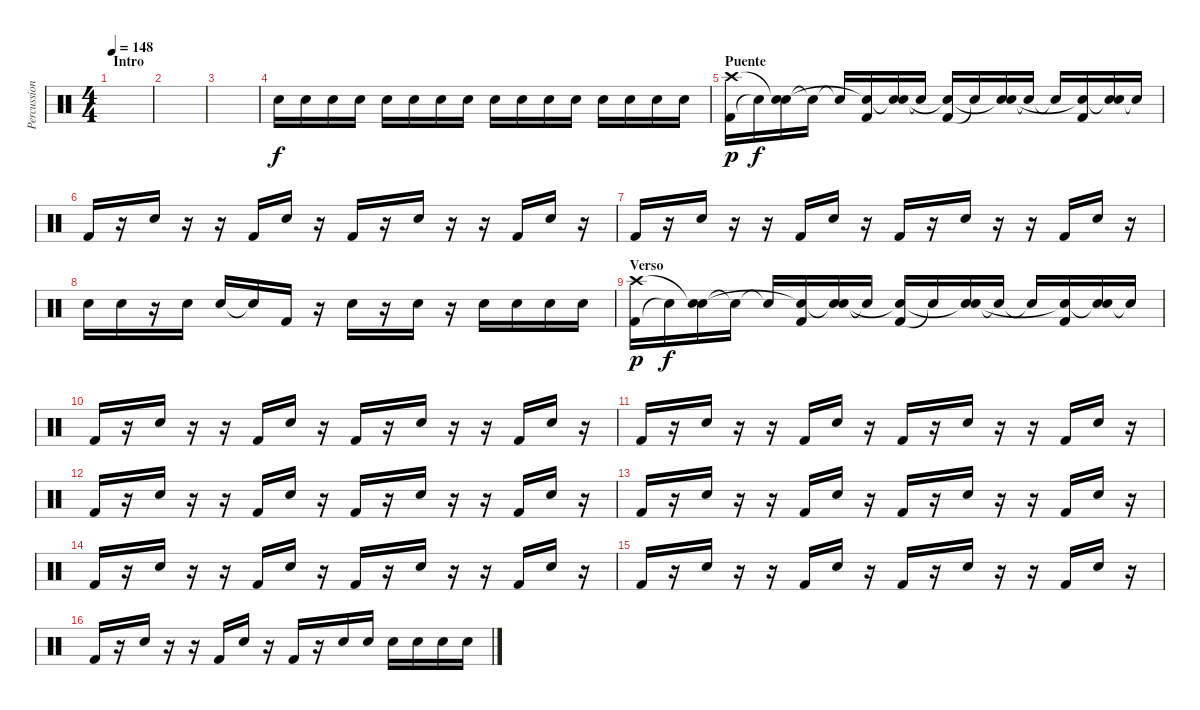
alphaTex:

\track ("Percussion" "Percussion") {instrument percussion}
\staff {score}
\articulation defaults
\ts (4 4)
\section ("" "Intro")
\tempo 148
\clef neutral
\ks c
|
|
|
"Electric Snare (hit)".16 "Electric Snare (hit)".16 "Electric Snare (hit)".16 "Electric Snare (hit)".16 "Electric Snare (hit)".16 "Electric Snare (hit)".16 "Electric Snare (hit)".16 "Electric Snare (hit)".16 "Electric Snare (hit)".16 "Electric Snare (hit)".16 "Electric Snare (hit)".16 "Electric Snare (hit)".16 "Electric Snare (hit)".16 "Electric Snare (hit)".16 "Electric Snare (hit)".16 "Electric Snare (hit)".16 |
\section ("" "Puente")
("Kick (hit) 2" "Crash high (hit)").16{dy p} "Snare (hit)"{t}.16{dy f} ("Electric Snare (hit)" "Snare (hit)"{t}).16 "Snare (hit)"{t}.16 "Snare (hit)"{t}.16 ("Kick (hit) 2" "Snare (hit)"{t}).16 ("Electric Snare (hit)" "Snare (hit)"{t}).16 "Snare (hit)"{t}.16 ("Kick (hit) 2" "Snare (hit)"{t}).16 "Snare (hit)"{t}.16 ("Electric Snare (hit)" "Snare (hit)"{t}).16 "Snare (hit)"{t}.16 "Snare (hit)"{t}.16 ("Kick (hit) 2" "Snare (hit)"{t}).16 ("Electric Snare (hit)" "Snare (hit)"{t}).16 "Snare (hit)"{t}.16 |
"Kick (hit) 2".16 r.16 "Electric Snare (hit)".16 r.16 r.16 "Kick (hit) 2".16 "Electric Snare (hit)".16 r.16 "Kick (hit) 2".16 r.16 "Electric Snare (hit)".16 r.16 r.16 "Kick (hit) 2".16 "Electric Snare (hit)".16 r.16 |
"Kick (hit) 2".16 r.16 "Electric Snare (hit)".16 r.16 r.16 "Kick (hit) 2".16 "Electric Snare (hit)".16 r.16 "Kick (hit) 2".16 r.16 "Electric Snare (hit)".16 r.16 r.16 "Kick (hit) 2".16 "Electric Snare (hit)".16 r.16 |
"Electric Snare (hit)".16 "Electric Snare (hit)".16 r.16 "Electric Snare (hit)".16 "Electric Snare (hit)".16 "Electric Snare (hit)"{t}.16 "Kick (hit) 2".16 r.16 "Electric Snare (hit)".16 r.16 "Electric Snare (hit)".16 r.16 "Electric Snare (hit)".16 "Electric Snare (hit)".16 "Electric Snare (hit)".16 "Electric Snare (hit)".16 |
\section ("" "Verso")
("Kick (hit) 2" "Crash high (hit)").16{dy p} "Snare (hit)"{t}.16{dy f} ("Electric Snare (hit)" "Snare (hit)"{t}).16 "Snare (hit)"{t}.16 "Snare (hit)"{t}.16 ("Kick (hit) 2" "Snare (hit)"{t}).16 ("Electric Snare (hit)" "Snare (hit)"{t}).16 "Snare (hit)"{t}.16 ("Kick (hit) 2" "Snare (hit)"{t}).16 "Snare (hit)"{t}.16 ("Electric Snare (hit)" "Snare (hit)"{t}).16 "Snare (hit)"{t}.16 "Snare (hit)"{t}.16 ("Kick (hit) 2" "Snare (hit)"{t}).16 ("Electric Snare (hit)" "Snare (hit)"{t}).16 "Snare (hit)"{t}.16 |
"Kick (hit) 2".16 r.16 "Electric Snare (hit)".16 r.16 r.16 "Kick (hit) 2".16 "Electric Snare (hit)".16 r.16 "Kick (hit) 2".16 r.16 "Electric Snare (hit)".16 r.16 r.16 "Kick (hit) 2".16 "Electric Snare (hit)".16 r.16 |
"Kick (hit) 2".16 r.16 "Electric Snare (hit)".16 r.16 r.16 "Kick (hit) 2".16 "Electric Snare (hit)".16 r.16 "Kick (hit) 2".16 r.16 "Electric Snare (hit)".16 r.16 r.16 "Kick (hit) 2".16 "Electric Snare (hit)".16 r.16 |
"Kick (hit) 2".16 r.16 "Electric Snare (hit)".16 r.16 r.16 "Kick (hit) 2".16 "Electric Snare (hit)".16 r.16 "Kick (hit) 2".16 r.16 "Electric Snare (hit)".16 r.16 r.16 "Kick (hit) 2".16 "Electric Snare (hit)".16 r.16 |
"Kick (hit) 2".16 r.16 "Electric Snare (hit)".16 r.16 r.16 "Kick (hit) 2".16 "Electric Snare (hit)".16 r.16 "Kick (hit) 2".16 r.16 "Electric Snare (hit)".16 r.16 r.16 "Kick (hit) 2".16 "Electric Snare (hit)".16 r.16 |
"Kick (hit) 2".16 r.16 "Electric Snare (hit)".16 r.16 r.16 "Kick (hit) 2".16 "Electric Snare (hit)".16 r.16 "Kick (hit) 2".16 r.16 "Electric Snare (hit)".16 r.16 r.16 "Kick (hit) 2".16 "Electric Snare (hit)".16 r.16 |
"Kick (hit) 2".16 r.16 "Electric Snare (hit)".16 r.16 r.16 "Kick (hit) 2".16 "Electric Snare (hit)".16 r.16 "Kick (hit) 2".16 r.16 "Electric Snare (hit)".16 r.16 r.16 "Kick (hit) 2".16 "Electric Snare (hit)".16 r.16 |
"Kick (hit) 2".16 r.16 "Electric Snare (hit)".16 r.16 r.16 "Kick (hit) 2".16 "Electric Snare (hit)".16 r.16 "Kick (hit) 2".16 r.16 "Electric Snare (hit)".16 "Electric Snare (hit)".16 "Electric Snare (hit)".16 "Electric Snare (hit)".16 "Electric Snare (hit)".16 "Electric Snare (hit)".16
